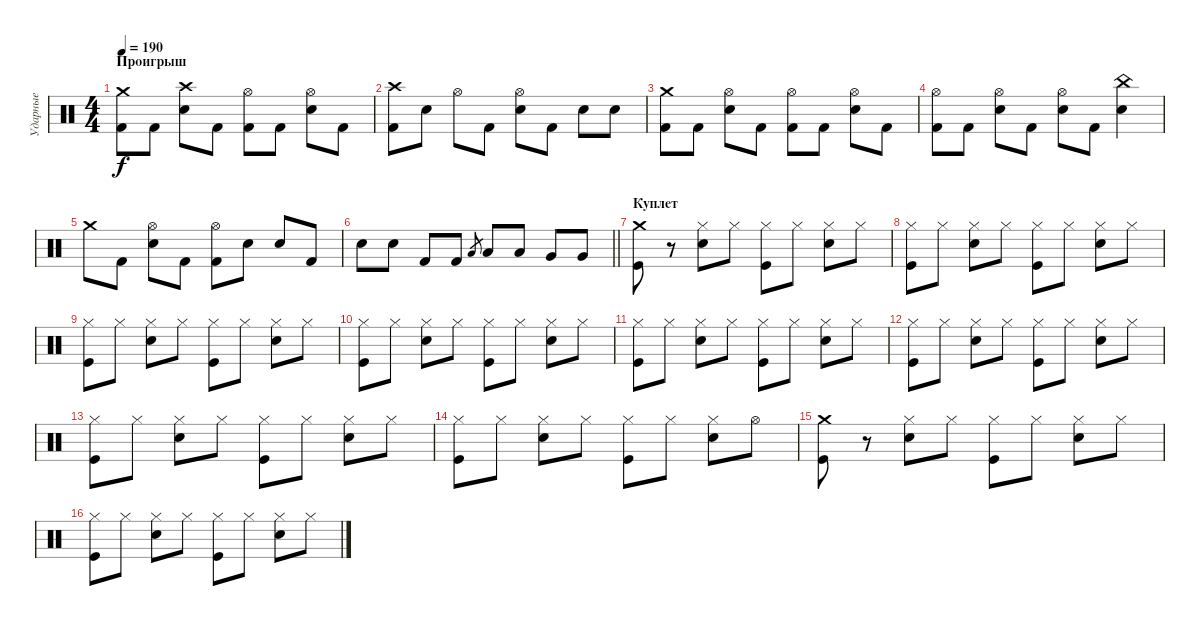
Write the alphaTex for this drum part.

\track ("Ударные" "Ударные") {instrument percussion}
\staff {score}
\articulation defaults
\ts (4 4)
\section ("" "Проигрыш")
\tempo 190
\clef neutral
\ks c
("Crash medium (hit)" "Kick (hit) 2").8{dy f} "Kick (hit) 2".8 ("Crash high (hit)" "Electric Snare (hit)").8 "Kick (hit) 2".8 ("Hi-Hat (open)" "Kick (hit) 2").8 "Kick (hit) 2".8 ("Hi-Hat (open)" "Electric Snare (hit)").8 "Kick (hit) 2".8 |
("Crash high (hit)" "Kick (hit) 2").8 "Electric Snare (hit)".8 "Hi-Hat (open)".8 "Kick (hit) 2".8 ("Hi-Hat (open)" "Electric Snare (hit)").8 "Kick (hit) 2".8 "Electric Snare (hit)".8 "Electric Snare (hit)".8 |
("Crash medium (hit)" "Kick (hit) 2").8 "Kick (hit) 2".8 ("Hi-Hat (open)" "Electric Snare (hit)").8 "Kick (hit) 2".8 ("Hi-Hat (open)" "Kick (hit) 2").8 "Kick (hit) 2".8 ("Hi-Hat (open)" "Electric Snare (hit)").8 "Kick (hit) 2".8 |
("Hi-Hat (open)" "Kick (hit) 2").8 "Kick (hit) 2".8 ("Hi-Hat (open)" "Electric Snare (hit)").8 "Kick (hit) 2".8 ("Hi-Hat (open)" "Electric Snare (hit)").8 "Kick (hit) 2".8 ("China (hit)" "Electric Snare (hit)").4 |
"Crash medium (hit)".8 "Kick (hit) 2".8 ("Hi-Hat (open)" "Electric Snare (hit)").8 "Kick (hit) 2".8 ("Hi-Hat (open)" "Kick (hit) 2").8 "Electric Snare (hit)".8 "Electric Snare (hit)".8 "Kick (hit) 2".8 |
\barLineRight lightlight "Electric Snare (hit)".8 "Electric Snare (hit)".8 "Kick (hit) 2".8 "Kick (hit) 2".8 "Low Tom (hit)".8{gr} "Low Tom (hit)".8 "Low Tom (hit)".8 "Very Low Tom (hit)".8 "Very Low Tom (hit)".8
|
\section ("" "Куплет")
("Crash medium (hit)" "Kick (hit)").8 r.8 ("Hi-Hat (closed)" "Snare (hit) 2").8 "Hi-Hat (closed)".8 ("Hi-Hat (closed)" "Kick (hit)").8 "Hi-Hat (closed)".8 ("Hi-Hat (closed)" "Snare (hit) 2").8 "Hi-Hat (closed)".8 |
("Hi-Hat (closed)" "Kick (hit)").8 "Hi-Hat (closed)".8 ("Hi-Hat (closed)" "Snare (hit) 2").8 "Hi-Hat (closed)".8 ("Hi-Hat (closed)" "Kick (hit)").8 "Hi-Hat (closed)".8 ("Hi-Hat (closed)" "Snare (hit) 2").8 "Hi-Hat (closed)".8 |
("Hi-Hat (closed)" "Kick (hit)").8 "Hi-Hat (closed)".8 ("Hi-Hat (closed)" "Snare (hit) 2").8 "Hi-Hat (closed)".8 ("Hi-Hat (closed)" "Kick (hit)").8 "Hi-Hat (closed)".8 ("Hi-Hat (closed)" "Snare (hit) 2").8 "Hi-Hat (closed)".8 |
("Hi-Hat (closed)" "Kick (hit)").8 "Hi-Hat (closed)".8 ("Hi-Hat (closed)" "Snare (hit) 2").8 "Hi-Hat (closed)".8 ("Hi-Hat (closed)" "Kick (hit)").8 "Hi-Hat (closed)".8 ("Hi-Hat (closed)" "Snare (hit) 2").8 "Hi-Hat (closed)".8 |
("Hi-Hat (closed)" "Kick (hit)").8 "Hi-Hat (closed)".8 ("Hi-Hat (closed)" "Snare (hit) 2").8 "Hi-Hat (closed)".8 ("Hi-Hat (closed)" "Kick (hit)").8 "Hi-Hat (closed)".8 ("Hi-Hat (closed)" "Snare (hit) 2").8 "Hi-Hat (closed)".8 |
("Hi-Hat (closed)" "Kick (hit)").8 "Hi-Hat (closed)".8 ("Hi-Hat (closed)" "Snare (hit) 2").8 "Hi-Hat (closed)".8 ("Hi-Hat (closed)" "Kick (hit)").8 "Hi-Hat (closed)".8 ("Hi-Hat (closed)" "Snare (hit) 2").8 "Hi-Hat (closed)".8 |
("Hi-Hat (closed)" "Kick (hit)").8 "Hi-Hat (closed)".8 ("Hi-Hat (closed)" "Snare (hit) 2").8 "Hi-Hat (closed)".8 ("Hi-Hat (closed)" "Kick (hit)").8 "Hi-Hat (closed)".8 ("Hi-Hat (closed)" "Snare (hit) 2").8 "Hi-Hat (closed)".8 |
("Hi-Hat (closed)" "Kick (hit)").8 "Hi-Hat (closed)".8 ("Hi-Hat (closed)" "Snare (hit) 2").8 "Hi-Hat (closed)".8 ("Hi-Hat (closed)" "Kick (hit)").8 "Hi-Hat (closed)".8 ("Hi-Hat (closed)" "Snare (hit) 2").8 "Hi-Hat (open)".8 |
("Crash medium (hit)" "Kick (hit)").8 r.8 ("Hi-Hat (closed)" "Snare (hit) 2").8 "Hi-Hat (closed)".8 ("Hi-Hat (closed)" "Kick (hit)").8 "Hi-Hat (closed)".8 ("Hi-Hat (closed)" "Snare (hit) 2").8 "Hi-Hat (closed)".8 |
("Hi-Hat (closed)" "Kick (hit)").8 "Hi-Hat (closed)".8 ("Hi-Hat (closed)" "Snare (hit) 2").8 "Hi-Hat (closed)".8 ("Hi-Hat (closed)" "Kick (hit)").8 "Hi-Hat (closed)".8 ("Hi-Hat (closed)" "Snare (hit) 2").8 "Hi-Hat (closed)".8
